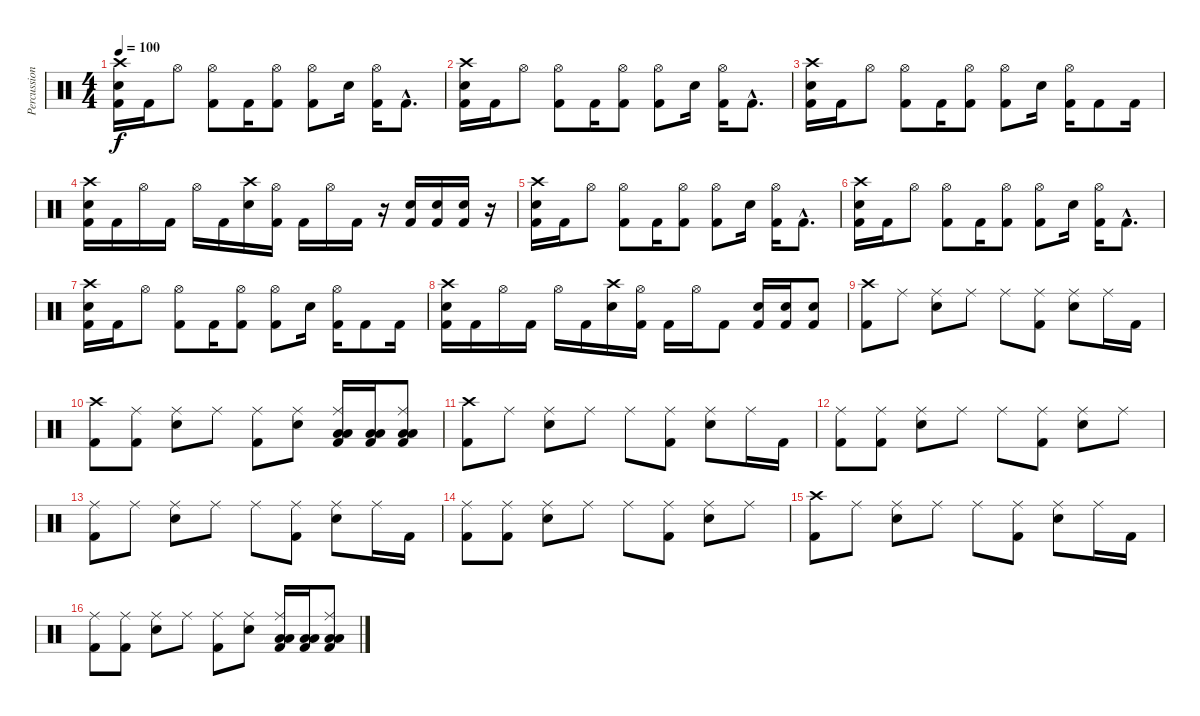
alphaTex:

\track ("Percussions" "Percussion") {instrument percussion}
\staff {score}
\articulation defaults
\ts (4 4)
\tempo 100
\clef neutral
\ks c
("Crash high (hit)" "Electric Snare (hit)" "Kick (hit) 2").16{dy f} "Kick (hit) 2".16 "Hi-Hat (open)".8 ("Hi-Hat (open)" "Kick (hit) 2").8 "Kick (hit) 2".16 ("Hi-Hat (open)" "Kick (hit) 2").8 ("Hi-Hat (open)" "Kick (hit) 2").8 "Electric Snare (hit)".16 ("Hi-Hat (open)" "Kick (hit) 2").16 "Kick (hit) 2"{hac}.8{d} |
("Crash high (hit)" "Electric Snare (hit)" "Kick (hit) 2").16 "Kick (hit) 2".16 "Hi-Hat (open)".8 ("Hi-Hat (open)" "Kick (hit) 2").8 "Kick (hit) 2".16 ("Hi-Hat (open)" "Kick (hit) 2").8 ("Hi-Hat (open)" "Kick (hit) 2").8 "Electric Snare (hit)".16 ("Hi-Hat (open)" "Kick (hit) 2").16 "Kick (hit) 2"{hac}.8{d} |
("Crash high (hit)" "Electric Snare (hit)" "Kick (hit) 2").16 "Kick (hit) 2".16 "Hi-Hat (open)".8 ("Hi-Hat (open)" "Kick (hit) 2").8 "Kick (hit) 2".16 ("Hi-Hat (open)" "Kick (hit) 2").8 ("Hi-Hat (open)" "Kick (hit) 2").8 "Electric Snare (hit)".16 ("Hi-Hat (open)" "Kick (hit) 2").16 "Kick (hit) 2".8 "Kick (hit) 2".16 |
("Crash high (hit)" "Electric Snare (hit)" "Kick (hit) 2").16 "Kick (hit) 2".16 "Hi-Hat (open)".16 "Kick (hit) 2".16 "Hi-Hat (open)".16 "Kick (hit) 2".16 ("Crash high (hit)" "Electric Snare (hit)").16 ("Hi-Hat (open)" "Kick (hit) 2").16 "Kick (hit) 2".16 "Hi-Hat (open)".16 "Kick (hit) 2".16 r.16 ("Electric Snare (hit)" "Kick (hit) 2").16 ("Electric Snare (hit)" "Kick (hit) 2").16 ("Electric Snare (hit)" "Kick (hit) 2").16 r.16 |
("Crash high (hit)" "Electric Snare (hit)" "Kick (hit) 2").16 "Kick (hit) 2".16 "Hi-Hat (open)".8 ("Hi-Hat (open)" "Kick (hit) 2").8 "Kick (hit) 2".16 ("Hi-Hat (open)" "Kick (hit) 2").8 ("Hi-Hat (open)" "Kick (hit) 2").8 "Electric Snare (hit)".16 ("Hi-Hat (open)" "Kick (hit) 2").16 "Kick (hit) 2"{hac}.8{d} |
("Crash high (hit)" "Electric Snare (hit)" "Kick (hit) 2").16 "Kick (hit) 2".16 "Hi-Hat (open)".8 ("Hi-Hat (open)" "Kick (hit) 2").8 "Kick (hit) 2".16 ("Hi-Hat (open)" "Kick (hit) 2").8 ("Hi-Hat (open)" "Kick (hit) 2").8 "Electric Snare (hit)".16 ("Hi-Hat (open)" "Kick (hit) 2").16 "Kick (hit) 2"{hac}.8{d} |
("Crash high (hit)" "Electric Snare (hit)" "Kick (hit) 2").16 "Kick (hit) 2".16 "Hi-Hat (open)".8 ("Hi-Hat (open)" "Kick (hit) 2").8 "Kick (hit) 2".16 ("Hi-Hat (open)" "Kick (hit) 2").8 ("Hi-Hat (open)" "Kick (hit) 2").8 "Electric Snare (hit)".16 ("Hi-Hat (open)" "Kick (hit) 2").16 "Kick (hit) 2".8 "Kick (hit) 2".16 |
("Crash high (hit)" "Electric Snare (hit)" "Kick (hit) 2").16 "Kick (hit) 2".16 "Hi-Hat (open)".16 "Kick (hit) 2".16 "Hi-Hat (open)".16 "Kick (hit) 2".16 ("Crash high (hit)" "Electric Snare (hit)").16 ("Hi-Hat (open)" "Kick (hit) 2").16 "Kick (hit) 2".16 "Hi-Hat (open)".16 "Kick (hit) 2".8 ("Electric Snare (hit)" "Kick (hit) 2").16 ("Electric Snare (hit)" "Kick (hit) 2").16 ("Electric Snare (hit)" "Kick (hit) 2").8 |
("Crash high (hit)" "Kick (hit) 2").8 "Ride (middle)".8 ("Ride (middle)" "Electric Snare (hit)").8 "Ride (middle)".8 "Ride (middle)".8 ("Ride (middle)" "Kick (hit) 2").8 ("Ride (middle)" "Electric Snare (hit)").8 "Ride (middle)".16 "Kick (hit) 2".16 |
("Crash high (hit)" "Kick (hit) 2").8 ("Ride (middle)" "Kick (hit) 2").8 ("Ride (middle)" "Electric Snare (hit)").8 "Ride (middle)".8 ("Ride (middle)" "Kick (hit) 2").8 ("Ride (middle)" "Electric Snare (hit)").8 ("Ride (middle)" "Low Tom (hit)" "Low Floor Tom (hit)" "Kick (hit) 2").16 ("Low Tom (hit)" "Low Floor Tom (hit)" "Kick (hit) 2").16 ("Ride (middle)" "Low Tom (hit)" "Low Floor Tom (hit)" "Kick (hit) 2").8 |
("Crash high (hit)" "Kick (hit) 2").8 "Ride (middle)".8 ("Ride (middle)" "Electric Snare (hit)").8 "Ride (middle)".8 "Ride (middle)".8 ("Ride (middle)" "Kick (hit) 2").8 ("Ride (middle)" "Electric Snare (hit)").8 "Ride (middle)".16 "Kick (hit) 2".16 |
("Ride (middle)" "Kick (hit) 2").8 ("Ride (middle)" "Kick (hit) 2").8 ("Ride (middle)" "Electric Snare (hit)").8 "Ride (middle)".8 "Ride (middle)".8 ("Ride (middle)" "Kick (hit) 2").8 ("Ride (middle)" "Electric Snare (hit)").8 "Ride (middle)".8 |
("Ride (middle)" "Kick (hit) 2").8 "Ride (middle)".8 ("Ride (middle)" "Electric Snare (hit)").8 "Ride (middle)".8 "Ride (middle)".8 ("Ride (middle)" "Kick (hit) 2").8 ("Ride (middle)" "Electric Snare (hit)").8 "Ride (middle)".16 "Kick (hit) 2".16 |
("Ride (middle)" "Kick (hit) 2").8 ("Ride (middle)" "Kick (hit) 2").8 ("Ride (middle)" "Electric Snare (hit)").8 "Ride (middle)".8 "Ride (middle)".8 ("Ride (middle)" "Kick (hit) 2").8 ("Ride (middle)" "Electric Snare (hit)").8 "Ride (middle)".8 |
("Crash high (hit)" "Kick (hit) 2").8 "Ride (middle)".8 ("Ride (middle)" "Electric Snare (hit)").8 "Ride (middle)".8 "Ride (middle)".8 ("Ride (middle)" "Kick (hit) 2").8 ("Ride (middle)" "Electric Snare (hit)").8 "Ride (middle)".16 "Kick (hit) 2".16 |
("Ride (middle)" "Kick (hit) 2").8 ("Ride (middle)" "Kick (hit) 2").8 ("Ride (middle)" "Electric Snare (hit)").8 "Ride (middle)".8 ("Ride (middle)" "Kick (hit) 2").8 ("Ride (middle)" "Electric Snare (hit)").8 ("Ride (middle)" "Low Tom (hit)" "Low Floor Tom (hit)" "Kick (hit) 2").16 ("Low Tom (hit)" "Low Floor Tom (hit)" "Kick (hit) 2").16 ("Ride (middle)" "Low Tom (hit)" "Low Floor Tom (hit)" "Kick (hit) 2").8
